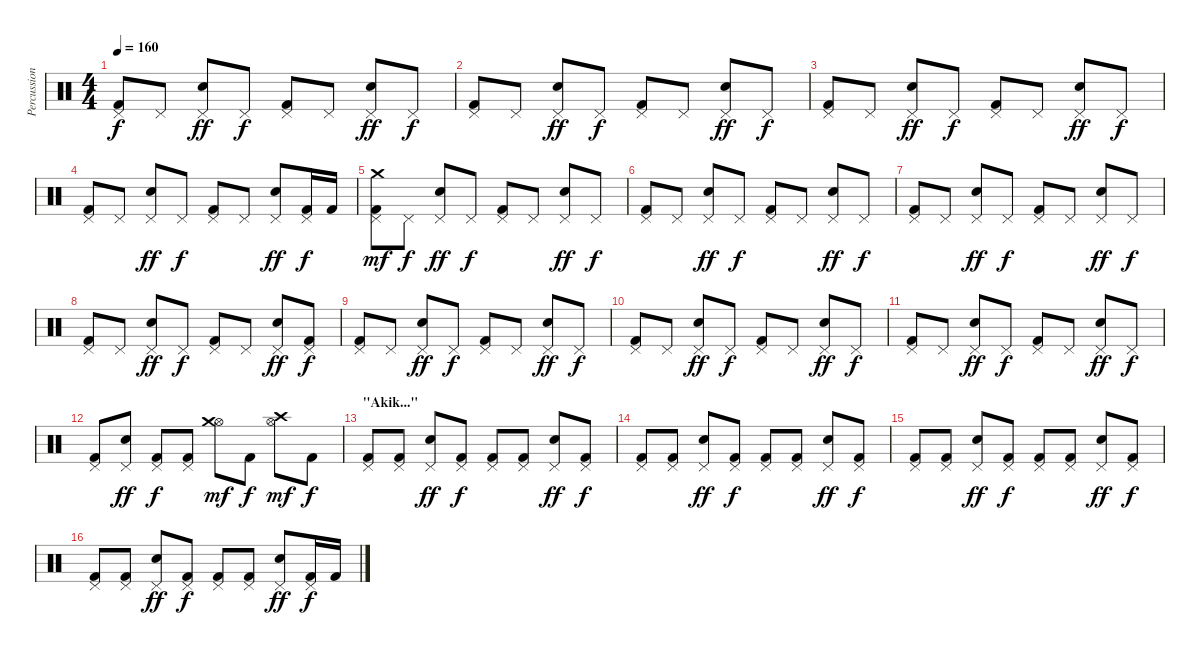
\track ("Percussion" "Percussion") {instrument percussion}
\staff {score}
\articulation defaults
\ts (4 4)
\tempo 160
\clef neutral
\ks c
("Pedal Hi-Hat (hit)" "Kick (hit) 2").8{dy f} "Pedal Hi-Hat (hit)".8 ("Pedal Hi-Hat (hit)" "Electric Snare (hit)").8{dy ff} "Pedal Hi-Hat (hit)".8{dy f} ("Pedal Hi-Hat (hit)" "Kick (hit) 2").8 "Pedal Hi-Hat (hit)".8 ("Pedal Hi-Hat (hit)" "Electric Snare (hit)").8{dy ff} "Pedal Hi-Hat (hit)".8{dy f} |
("Pedal Hi-Hat (hit)" "Kick (hit) 2").8 "Pedal Hi-Hat (hit)".8 ("Pedal Hi-Hat (hit)" "Electric Snare (hit)").8{dy ff} "Pedal Hi-Hat (hit)".8{dy f} ("Pedal Hi-Hat (hit)" "Kick (hit) 2").8 "Pedal Hi-Hat (hit)".8 ("Pedal Hi-Hat (hit)" "Electric Snare (hit)").8{dy ff} "Pedal Hi-Hat (hit)".8{dy f} |
("Pedal Hi-Hat (hit)" "Kick (hit) 2").8 "Pedal Hi-Hat (hit)".8 ("Pedal Hi-Hat (hit)" "Electric Snare (hit)").8{dy ff} "Pedal Hi-Hat (hit)".8{dy f} ("Pedal Hi-Hat (hit)" "Kick (hit) 2").8 "Pedal Hi-Hat (hit)".8 ("Pedal Hi-Hat (hit)" "Electric Snare (hit)").8{dy ff} "Pedal Hi-Hat (hit)".8{dy f} |
("Pedal Hi-Hat (hit)" "Kick (hit) 2").8 "Pedal Hi-Hat (hit)".8 ("Pedal Hi-Hat (hit)" "Electric Snare (hit)").8{dy ff} "Pedal Hi-Hat (hit)".8{dy f} ("Pedal Hi-Hat (hit)" "Kick (hit) 2").8 "Pedal Hi-Hat (hit)".8 ("Pedal Hi-Hat (hit)" "Electric Snare (hit)").8{dy ff} ("Pedal Hi-Hat (hit)" "Kick (hit) 2").16{dy f} "Kick (hit) 2".16 |
("Pedal Hi-Hat (hit)" "Crash medium (hit)" "Kick (hit) 2").8{dy mf} "Pedal Hi-Hat (hit)".8{dy f} ("Pedal Hi-Hat (hit)" "Electric Snare (hit)").8{dy ff} "Pedal Hi-Hat (hit)".8{dy f} ("Pedal Hi-Hat (hit)" "Kick (hit) 2").8 "Pedal Hi-Hat (hit)".8 ("Pedal Hi-Hat (hit)" "Electric Snare (hit)").8{dy ff} "Pedal Hi-Hat (hit)".8{dy f} |
("Pedal Hi-Hat (hit)" "Kick (hit) 2").8 "Pedal Hi-Hat (hit)".8 ("Pedal Hi-Hat (hit)" "Electric Snare (hit)").8{dy ff} "Pedal Hi-Hat (hit)".8{dy f} ("Pedal Hi-Hat (hit)" "Kick (hit) 2").8 "Pedal Hi-Hat (hit)".8 ("Pedal Hi-Hat (hit)" "Electric Snare (hit)").8{dy ff} "Pedal Hi-Hat (hit)".8{dy f} |
("Pedal Hi-Hat (hit)" "Kick (hit) 2").8 "Pedal Hi-Hat (hit)".8 ("Pedal Hi-Hat (hit)" "Electric Snare (hit)").8{dy ff} "Pedal Hi-Hat (hit)".8{dy f} ("Pedal Hi-Hat (hit)" "Kick (hit) 2").8 "Pedal Hi-Hat (hit)".8 ("Pedal Hi-Hat (hit)" "Electric Snare (hit)").8{dy ff} "Pedal Hi-Hat (hit)".8{dy f} |
("Pedal Hi-Hat (hit)" "Kick (hit) 2").8 "Pedal Hi-Hat (hit)".8 ("Pedal Hi-Hat (hit)" "Electric Snare (hit)").8{dy ff} "Pedal Hi-Hat (hit)".8{dy f} ("Pedal Hi-Hat (hit)" "Kick (hit) 2").8 "Pedal Hi-Hat (hit)".8 ("Pedal Hi-Hat (hit)" "Electric Snare (hit)").8{dy ff} ("Pedal Hi-Hat (hit)" "Kick (hit) 2").8{dy f} |
("Pedal Hi-Hat (hit)" "Kick (hit) 2").8 "Pedal Hi-Hat (hit)".8 ("Pedal Hi-Hat (hit)" "Electric Snare (hit)").8{dy ff} "Pedal Hi-Hat (hit)".8{dy f} ("Pedal Hi-Hat (hit)" "Kick (hit) 2").8 "Pedal Hi-Hat (hit)".8 ("Pedal Hi-Hat (hit)" "Electric Snare (hit)").8{dy ff} "Pedal Hi-Hat (hit)".8{dy f} |
("Pedal Hi-Hat (hit)" "Kick (hit) 2").8 "Pedal Hi-Hat (hit)".8 ("Pedal Hi-Hat (hit)" "Electric Snare (hit)").8{dy ff} "Pedal Hi-Hat (hit)".8{dy f} ("Pedal Hi-Hat (hit)" "Kick (hit) 2").8 "Pedal Hi-Hat (hit)".8 ("Pedal Hi-Hat (hit)" "Electric Snare (hit)").8{dy ff} "Pedal Hi-Hat (hit)".8{dy f} |
("Pedal Hi-Hat (hit)" "Kick (hit) 2").8 "Pedal Hi-Hat (hit)".8 ("Pedal Hi-Hat (hit)" "Electric Snare (hit)").8{dy ff} "Pedal Hi-Hat (hit)".8{dy f} ("Pedal Hi-Hat (hit)" "Kick (hit) 2").8 "Pedal Hi-Hat (hit)".8 ("Pedal Hi-Hat (hit)" "Electric Snare (hit)").8{dy ff} "Pedal Hi-Hat (hit)".8{dy f} |
("Pedal Hi-Hat (hit)" "Kick (hit) 2").8 ("Pedal Hi-Hat (hit)" "Electric Snare (hit)").8{dy ff} ("Pedal Hi-Hat (hit)" "Kick (hit) 2").8{dy f} ("Pedal Hi-Hat (hit)" "Kick (hit) 2").8 ("Hi-Hat (open)" "Crash medium (hit)").8{dy mf} "Kick (hit) 2".8{dy f} ("Hi-Hat (open)" "Crash high (hit)").8{dy mf} "Kick (hit) 2".8{dy f} |
\section ("" "\"Akik...\"")
("Pedal Hi-Hat (hit)" "Kick (hit) 2").8 ("Pedal Hi-Hat (hit)" "Kick (hit) 2").8 ("Pedal Hi-Hat (hit)" "Electric Snare (hit)").8{dy ff} ("Pedal Hi-Hat (hit)" "Kick (hit) 2").8{dy f} ("Pedal Hi-Hat (hit)" "Kick (hit) 2").8 ("Pedal Hi-Hat (hit)" "Kick (hit) 2").8 ("Pedal Hi-Hat (hit)" "Electric Snare (hit)").8{dy ff} ("Pedal Hi-Hat (hit)" "Kick (hit) 2").8{dy f} |
("Pedal Hi-Hat (hit)" "Kick (hit) 2").8 ("Pedal Hi-Hat (hit)" "Kick (hit) 2").8 ("Pedal Hi-Hat (hit)" "Electric Snare (hit)").8{dy ff} ("Pedal Hi-Hat (hit)" "Kick (hit) 2").8{dy f} ("Pedal Hi-Hat (hit)" "Kick (hit) 2").8 ("Pedal Hi-Hat (hit)" "Kick (hit) 2").8 ("Pedal Hi-Hat (hit)" "Electric Snare (hit)").8{dy ff} ("Pedal Hi-Hat (hit)" "Kick (hit) 2").8{dy f} |
("Pedal Hi-Hat (hit)" "Kick (hit) 2").8 ("Pedal Hi-Hat (hit)" "Kick (hit) 2").8 ("Pedal Hi-Hat (hit)" "Electric Snare (hit)").8{dy ff} ("Pedal Hi-Hat (hit)" "Kick (hit) 2").8{dy f} ("Pedal Hi-Hat (hit)" "Kick (hit) 2").8 ("Pedal Hi-Hat (hit)" "Kick (hit) 2").8 ("Pedal Hi-Hat (hit)" "Electric Snare (hit)").8{dy ff} ("Pedal Hi-Hat (hit)" "Kick (hit) 2").8{dy f} |
("Pedal Hi-Hat (hit)" "Kick (hit) 2").8 ("Pedal Hi-Hat (hit)" "Kick (hit) 2").8 ("Pedal Hi-Hat (hit)" "Electric Snare (hit)").8{dy ff} ("Pedal Hi-Hat (hit)" "Kick (hit) 2").8{dy f} ("Pedal Hi-Hat (hit)" "Kick (hit) 2").8 ("Pedal Hi-Hat (hit)" "Kick (hit) 2").8 ("Pedal Hi-Hat (hit)" "Electric Snare (hit)").8{dy ff} ("Pedal Hi-Hat (hit)" "Kick (hit) 2").16{dy f} "Kick (hit) 2".16
